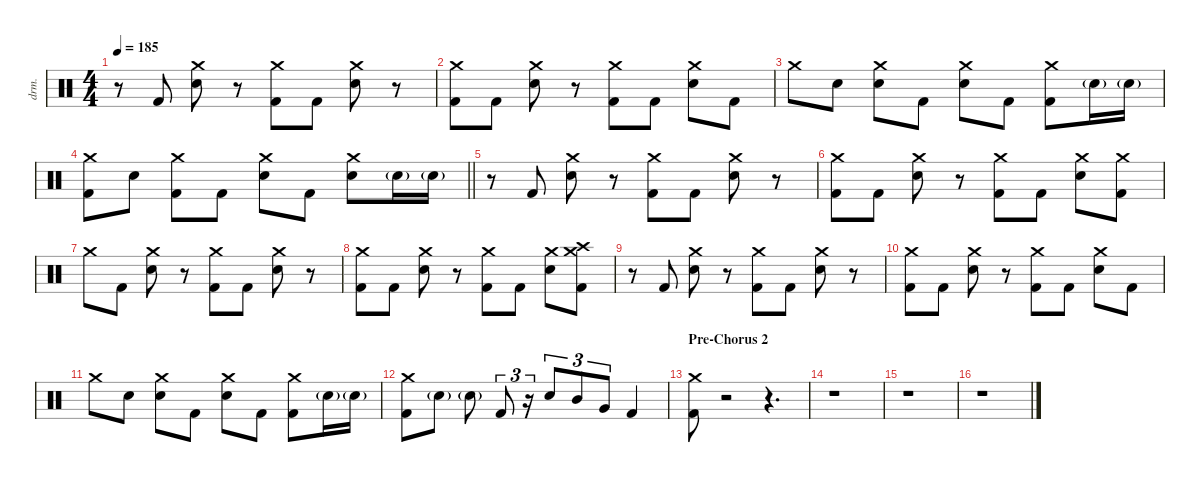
\defaultSystemsLayout 4
\hideDynamics
\bracketExtendMode nobrackets
\track ("Drums - Šimon" "drm.") {instrument percussion}
\staff {score}
\articulation defaults
\ts (4 4)
\tempo 185
\clef neutral
\ks c
r.8{dy ff} "Kick (hit) 2".8 ("Snare (hit) 2" "Crash medium (hit)").8 r.8 ("Kick (hit) 2" "Crash medium (hit)").8 "Kick (hit) 2".8 ("Snare (hit) 2" "Crash medium (hit)").8 r.8 |
("Kick (hit) 2" "Crash medium (hit)").8 "Kick (hit) 2".8 ("Snare (hit) 2" "Crash medium (hit)").8 r.8 ("Kick (hit) 2" "Crash medium (hit)").8 "Kick (hit) 2".8 ("Snare (hit) 2" "Crash medium (hit)").8 "Kick (hit) 2".8 |
"Crash medium (hit)".8 "Snare (hit) 2".8 ("Snare (hit) 2" "Crash medium (hit)").8 "Kick (hit) 2".8 ("Crash medium (hit)" "Snare (hit) 2").8 "Kick (hit) 2".8 ("Crash medium (hit)" "Kick (hit) 2").8 "Snare (hit) 2"{g}.16 "Snare (hit) 2"{g}.16 |
\barLineRight lightlight
("Kick (hit) 2" "Crash medium (hit)").8 "Snare (hit) 2".8 ("Crash medium (hit)" "Kick (hit) 2").8 "Kick (hit) 2".8 ("Crash medium (hit)" "Snare (hit) 2").8 "Kick (hit) 2".8 ("Snare (hit) 2" "Crash medium (hit)").8 "Snare (hit) 2"{g}.16 "Snare (hit) 2"{g}.16 |
r.8 "Kick (hit) 2".8 ("Snare (hit) 2" "Crash medium (hit)").8 r.8 ("Kick (hit) 2" "Crash medium (hit)").8 "Kick (hit) 2".8 ("Snare (hit) 2" "Crash medium (hit)").8 r.8 |
("Kick (hit) 2" "Crash medium (hit)").8 "Kick (hit) 2".8 ("Snare (hit) 2" "Crash medium (hit)").8 r.8 ("Kick (hit) 2" "Crash medium (hit)").8 "Kick (hit) 2".8 ("Snare (hit) 2" "Crash medium (hit)").8 ("Kick (hit) 2" "Crash medium (hit)").8 |
"Crash medium (hit)".8 "Kick (hit) 2".8 ("Snare (hit) 2" "Crash medium (hit)").8 r.8 ("Kick (hit) 2" "Crash medium (hit)").8 "Kick (hit) 2".8 ("Snare (hit) 2" "Crash medium (hit)").8 r.8 |
("Kick (hit) 2" "Crash medium (hit)").8 "Kick (hit) 2".8 ("Snare (hit) 2" "Crash medium (hit)").8 r.8 ("Kick (hit) 2" "Crash medium (hit)").8 "Kick (hit) 2".8 ("Snare (hit) 2" "Crash medium (hit)").8 ("Crash medium (hit)" "Kick (hit) 2" "Crash high (hit)").8 |
r.8 "Kick (hit) 2".8 ("Snare (hit) 2" "Crash medium (hit)").8 r.8 ("Kick (hit) 2" "Crash medium (hit)").8 "Kick (hit) 2".8 ("Snare (hit) 2" "Crash medium (hit)").8 r.8 |
("Kick (hit) 2" "Crash medium (hit)").8 "Kick (hit) 2".8 ("Snare (hit) 2" "Crash medium (hit)").8 r.8 ("Kick (hit) 2" "Crash medium (hit)").8 "Kick (hit) 2".8 ("Snare (hit) 2" "Crash medium (hit)").8 "Kick (hit) 2".8 |
"Crash medium (hit)".8 "Snare (hit) 2".8 ("Snare (hit) 2" "Crash medium (hit)").8 "Kick (hit) 2".8 ("Crash medium (hit)" "Snare (hit) 2").8 "Kick (hit) 2".8 ("Crash medium (hit)" "Kick (hit) 2").8 "Snare (hit) 2"{g}.16 "Snare (hit) 2"{g}.16 |
("Kick (hit) 2" "Crash medium (hit)").8 "Snare (hit) 2"{g}.8 "Snare (hit) 2"{g}.8 "Kick (hit) 2".8{tu (3 2)} r.16{tu (3 2)} "Snare (hit) 2".8{tu (3 2)} "Mid Tom (hit)".8{tu (3 2)} "Very Low Tom (hit)".8{tu (3 2)} "Kick (hit) 2".4 |
\section ("" "Pre-Chorus 2")
("Kick (hit) 2" "Crash medium (hit)").8 r.2 r.4{d} |
r.1 |
r.1 |
r.1
